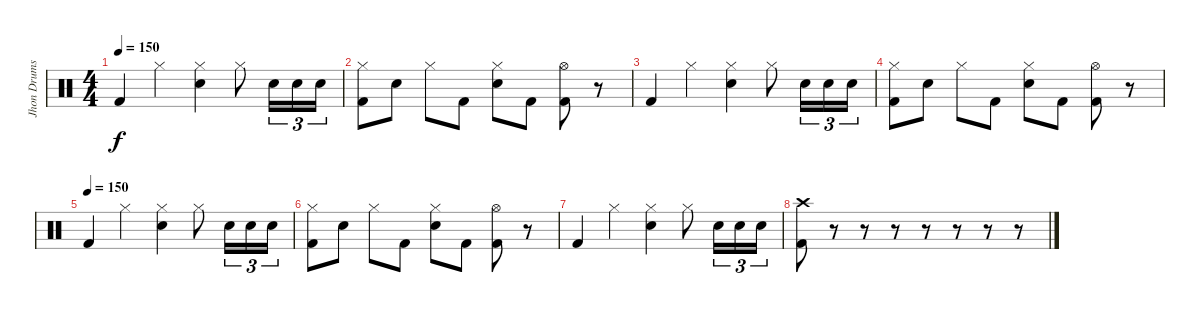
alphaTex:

\track ("Jhon Drums" "Jhon Drums") {instrument percussion}
\staff {score}
\articulation defaults
\ts (4 4)
\tempo 150
\clef neutral
\ks c "Kick (hit) 2".4{dy f} "Hi-Hat (closed)".4
("Hi-Hat (closed)" "Electric Snare (hit)").4 "Hi-Hat (closed)".8 "Electric Snare (hit)".16{tu (3 2)} "Electric Snare (hit)".16{tu (3 2)} "Electric Snare (hit)".16{tu (3 2)} |
("Hi-Hat (closed)" "Kick (hit) 2").8 "Electric Snare (hit)".8 "Hi-Hat (closed)".8 "Kick (hit) 2".8 ("Hi-Hat (closed)" "Electric Snare (hit)").8 "Kick (hit) 2".8 ("Hi-Hat (open)" "Kick (hit) 2").8 r.8 |
"Kick (hit) 2".4 "Hi-Hat (closed)".4 ("Hi-Hat (closed)" "Electric Snare (hit)").4 "Hi-Hat (closed)".8 "Electric Snare (hit)".16{tu (3 2)} "Electric Snare (hit)".16{tu (3 2)} "Electric Snare (hit)".16{tu (3 2)} |
("Hi-Hat (closed)" "Kick (hit) 2").8 "Electric Snare (hit)".8 "Hi-Hat (closed)".8 "Kick (hit) 2".8 ("Hi-Hat (closed)" "Electric Snare (hit)").8 "Kick (hit) 2".8 ("Hi-Hat (open)" "Kick (hit) 2").8 r.8 |
\tempo (150)
"Kick (hit) 2".4 "Hi-Hat (closed)".4 ("Hi-Hat (closed)" "Electric Snare (hit)").4 "Hi-Hat (closed)".8 "Electric Snare (hit)".16{tu (3 2)} "Electric Snare (hit)".16{tu (3 2)} "Electric Snare (hit)".16{tu (3 2)} |
("Hi-Hat (closed)" "Kick (hit) 2").8 "Electric Snare (hit)".8 "Hi-Hat (closed)".8 "Kick (hit) 2".8 ("Hi-Hat (closed)" "Electric Snare (hit)").8 "Kick (hit) 2".8 ("Hi-Hat (open)" "Kick (hit) 2").8 r.8 |
"Kick (hit) 2".4 "Hi-Hat (closed)".4 ("Hi-Hat (closed)" "Electric Snare (hit)").4 "Hi-Hat (closed)".8 "Electric Snare (hit)".16{tu (3 2)} "Electric Snare (hit)".16{tu (3 2)} "Electric Snare (hit)".16{tu (3 2)} |
("Crash high (hit)" "Kick (hit) 2").8 r.8 r.8 r.8 r.8 r.8 r.8 r.8
